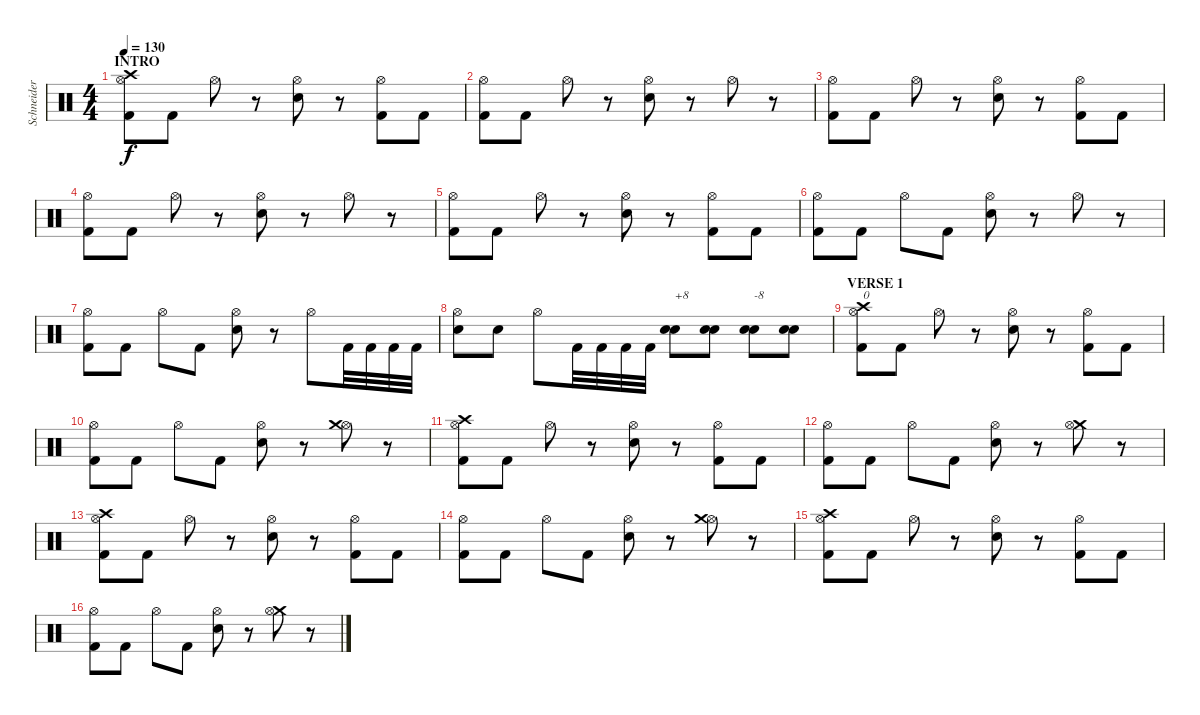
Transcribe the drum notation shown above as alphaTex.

\track ("Schneider - Drums" "Schneider ") {instrument percussion}
\staff {score}
\articulation defaults
\ts (4 4)
\section ("" "INTRO")
\tempo 130
\clef neutral
\ks c
("Kick (hit) 2" "Hi-Hat (open)" "Crash high (hit)").8{dy f} "Kick (hit) 2".8 "Hi-Hat (open)".8 r.8 ("Electric Snare (hit)" "Hi-Hat (open)").8 r.8 ("Kick (hit) 2" "Hi-Hat (open)").8 "Kick (hit) 2".8 |
("Kick (hit) 2" "Hi-Hat (open)").8 "Kick (hit) 2".8 "Hi-Hat (open)".8 r.8 ("Electric Snare (hit)" "Hi-Hat (open)").8 r.8 "Hi-Hat (open)".8 r.8 |
("Kick (hit) 2" "Hi-Hat (open)").8 "Kick (hit) 2".8 "Hi-Hat (open)".8 r.8 ("Electric Snare (hit)" "Hi-Hat (open)").8 r.8 ("Kick (hit) 2" "Hi-Hat (open)").8 "Kick (hit) 2".8 |
("Kick (hit) 2" "Hi-Hat (open)").8 "Kick (hit) 2".8 "Hi-Hat (open)".8 r.8 ("Electric Snare (hit)" "Hi-Hat (open)").8 r.8 "Hi-Hat (open)".8 r.8 |
("Kick (hit) 2" "Hi-Hat (open)").8 "Kick (hit) 2".8 "Hi-Hat (open)".8 r.8 ("Electric Snare (hit)" "Hi-Hat (open)").8 r.8 ("Kick (hit) 2" "Hi-Hat (open)").8 "Kick (hit) 2".8 |
("Kick (hit) 2" "Hi-Hat (open)").8 "Kick (hit) 2".8 "Hi-Hat (open)".8 "Kick (hit) 2".8 ("Electric Snare (hit)" "Hi-Hat (open)").8 r.8 "Hi-Hat (open)".8 r.8 |
("Kick (hit) 2" "Hi-Hat (open)").8 "Kick (hit) 2".8 "Hi-Hat (open)".8 "Kick (hit) 2".8 ("Electric Snare (hit)" "Hi-Hat (open)").8 r.8 "Hi-Hat (open)".8 "Kick (hit) 2".32 "Kick (hit) 2".32 "Kick (hit) 2".32 "Kick (hit) 2".32 |
("Electric Snare (hit)" "Hi-Hat (open)").8 "Electric Snare (hit)".8 "Hi-Hat (open)".8 "Kick (hit) 2".32 "Kick (hit) 2".32 "Kick (hit) 2".32 "Kick (hit) 2".32 ("Electric Snare (hit)" "Electric Snare (hit)").8{txt "+8" balance 16} ("Electric Snare (hit)" "Electric Snare (hit)").8 ("Electric Snare (hit)" "Electric Snare (hit)").8{txt "-8" balance 0} ("Electric Snare (hit)" "Electric Snare (hit)").8 |
\section ("" "VERSE 1")
("Kick (hit) 2" "Hi-Hat (open)" "Crash high (hit)").8{txt "0" balance 8} "Kick (hit) 2".8 "Hi-Hat (open)".8 r.8 ("Electric Snare (hit)" "Hi-Hat (open)").8 r.8 ("Kick (hit) 2" "Hi-Hat (open)").8 "Kick (hit) 2".8 |
("Kick (hit) 2" "Hi-Hat (open)").8 "Kick (hit) 2".8 "Hi-Hat (open)".8 "Kick (hit) 2".8 ("Electric Snare (hit)" "Hi-Hat (open)").8 r.8 ("Hi-Hat (open)" "Crash medium (hit)").8 r.8 |
("Kick (hit) 2" "Hi-Hat (open)" "Crash high (hit)").8 "Kick (hit) 2".8 "Hi-Hat (open)".8 r.8 ("Electric Snare (hit)" "Hi-Hat (open)").8 r.8 ("Kick (hit) 2" "Hi-Hat (open)").8 "Kick (hit) 2".8 |
("Kick (hit) 2" "Hi-Hat (open)").8 "Kick (hit) 2".8 "Hi-Hat (open)".8 "Kick (hit) 2".8 ("Electric Snare (hit)" "Hi-Hat (open)").8 r.8 ("Crash medium (hit)" "Hi-Hat (open)").8 r.8 |
("Kick (hit) 2" "Hi-Hat (open)" "Crash high (hit)").8 "Kick (hit) 2".8 "Hi-Hat (open)".8 r.8 ("Electric Snare (hit)" "Hi-Hat (open)").8 r.8 ("Kick (hit) 2" "Hi-Hat (open)").8 "Kick (hit) 2".8 |
("Kick (hit) 2" "Hi-Hat (open)").8 "Kick (hit) 2".8 "Hi-Hat (open)".8 "Kick (hit) 2".8 ("Electric Snare (hit)" "Hi-Hat (open)").8 r.8 ("Hi-Hat (open)" "Crash medium (hit)").8 r.8 |
("Kick (hit) 2" "Hi-Hat (open)" "Crash high (hit)").8 "Kick (hit) 2".8 "Hi-Hat (open)".8 r.8 ("Electric Snare (hit)" "Hi-Hat (open)").8 r.8 ("Kick (hit) 2" "Hi-Hat (open)").8 "Kick (hit) 2".8 |
("Kick (hit) 2" "Hi-Hat (open)").8 "Kick (hit) 2".8 "Hi-Hat (open)".8 "Kick (hit) 2".8 ("Electric Snare (hit)" "Hi-Hat (open)").8 r.8 ("Crash medium (hit)" "Hi-Hat (open)").8 r.8
